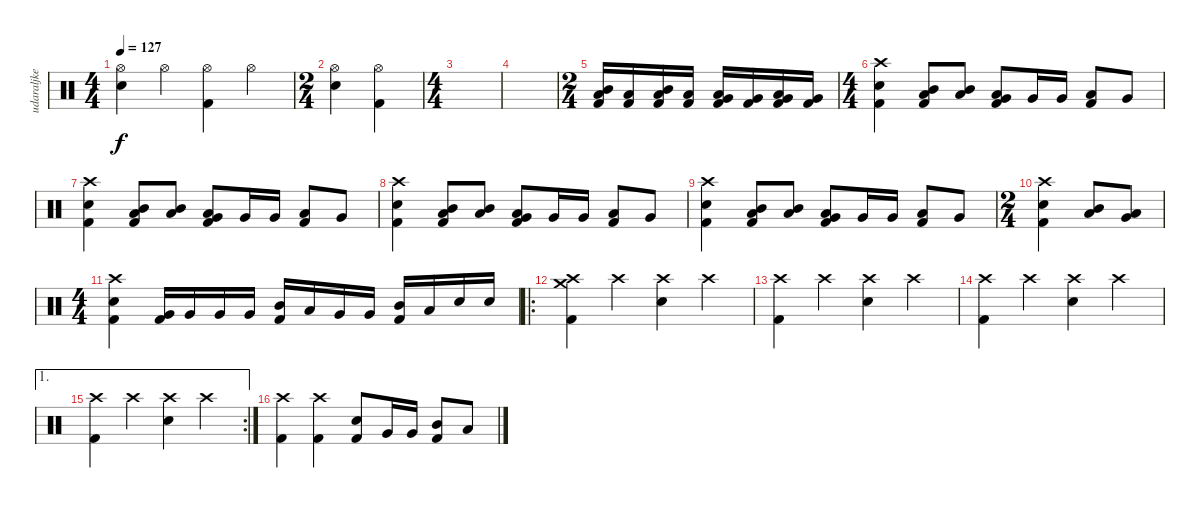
\track ("udaraljke" "udaraljke") {instrument percussion}
\staff {score}
\articulation defaults
\ts (4 4)
\tempo 127
\clef neutral
\ks c
("Hi-Hat (open)" "Electric Snare (hit)").4{dy f} "Hi-Hat (open)".4 ("Hi-Hat (open)" "Kick (hit) 2").4 "Hi-Hat (open)".4 |
\ts (2 4)
("Hi-Hat (open)" "Electric Snare (hit)").4 ("Hi-Hat (open)" "Kick (hit) 2").4 |
\ts (4 4)
|
|
\ts (2 4)
("Mid Tom (hit)" "Low Tom (hit)" "Kick (hit) 2").16 ("Low Tom (hit)" "Kick (hit) 2").16 ("Mid Tom (hit)" "Low Tom (hit)" "Kick (hit) 2").16 ("Low Tom (hit)" "Kick (hit) 2").16 ("Low Tom (hit)" "Very Low Tom (hit)" "Kick (hit) 2").16 ("Very Low Tom (hit)" "Kick (hit) 2").16 ("Low Tom (hit)" "Very Low Tom (hit)" "Kick (hit) 2").16 ("Very Low Tom (hit)" "Kick (hit) 2").16 |
\ts (4 4)
("Crash high (hit)" "Electric Snare (hit)" "Kick (hit) 2").4 ("Mid Tom (hit)" "Low Tom (hit)" "Kick (hit) 2").8 ("Mid Tom (hit)" "Low Tom (hit)").8 ("Low Tom (hit)" "Very Low Tom (hit)" "Kick (hit) 2").8 "Very Low Tom (hit)".16 "Very Low Tom (hit)".16 ("Low Tom (hit)" "Kick (hit) 2").8 "Very Low Tom (hit)".8 |
("Crash high (hit)" "Electric Snare (hit)" "Kick (hit) 2").4 ("Mid Tom (hit)" "Low Tom (hit)" "Kick (hit) 2").8 ("Mid Tom (hit)" "Low Tom (hit)").8 ("Low Tom (hit)" "Very Low Tom (hit)" "Kick (hit) 2").8 "Very Low Tom (hit)".16 "Very Low Tom (hit)".16 ("Low Tom (hit)" "Kick (hit) 2").8 "Very Low Tom (hit)".8 |
("Crash high (hit)" "Electric Snare (hit)" "Kick (hit) 2").4 ("Mid Tom (hit)" "Low Tom (hit)" "Kick (hit) 2").8 ("Mid Tom (hit)" "Low Tom (hit)").8 ("Low Tom (hit)" "Very Low Tom (hit)" "Kick (hit) 2").8 "Very Low Tom (hit)".16 "Very Low Tom (hit)".16 ("Low Tom (hit)" "Kick (hit) 2").8 "Very Low Tom (hit)".8 |
("Crash high (hit)" "Electric Snare (hit)" "Kick (hit) 2").4 ("Mid Tom (hit)" "Low Tom (hit)" "Kick (hit) 2").8 ("Mid Tom (hit)" "Low Tom (hit)").8 ("Low Tom (hit)" "Very Low Tom (hit)" "Kick (hit) 2").8 "Very Low Tom (hit)".16 "Very Low Tom (hit)".16 ("Low Tom (hit)" "Kick (hit) 2").8 "Very Low Tom (hit)".8 |
\ts (2 4)
("Crash high (hit)" "Electric Snare (hit)" "Kick (hit) 2").4 ("Mid Tom (hit)" "Low Tom (hit)").8 ("Low Tom (hit)" "Very Low Tom (hit)").8 |
\ts (4 4)
("Crash high (hit)" "Electric Snare (hit)" "Kick (hit) 2").4 ("Very Low Tom (hit)" "Kick (hit) 2").16 "Very Low Tom (hit)".16 "Very Low Tom (hit)".16 "Very Low Tom (hit)".16 ("Mid Tom (hit)" "Kick (hit) 2").16 "Low Tom (hit)".16 "Very Low Tom (hit)".16 "Very Low Tom (hit)".16 ("Mid Tom (hit)" "Kick (hit) 2").16 "Low Tom (hit)".16 "Electric Snare (hit)".16 "Electric Snare (hit)".16 |
\ro
("Crash high (hit)" "Crash medium (hit)" "Kick (hit) 2").4 "Crash high (hit)".4 ("Crash high (hit)" "Electric Snare (hit)").4 "Crash high (hit)".4 |
("Crash high (hit)" "Kick (hit) 2").4 "Crash high (hit)".4 ("Crash high (hit)" "Electric Snare (hit)").4 "Crash high (hit)".4 |
("Crash high (hit)" "Kick (hit) 2").4 "Crash high (hit)".4 ("Crash high (hit)" "Electric Snare (hit)").4 "Crash high (hit)".4 |
\ae 1
\rc 2
("Crash high (hit)" "Kick (hit) 2").4 "Crash high (hit)".4 ("Crash high (hit)" "Electric Snare (hit)").4 "Crash high (hit)".4 |
("Crash high (hit)" "Kick (hit) 2").4 ("Crash high (hit)" "Kick (hit) 2").4 ("Electric Snare (hit)" "Kick (hit) 2").8 "Very Low Tom (hit)".16 "Very Low Tom (hit)".16 ("Mid Tom (hit)" "Kick (hit) 2").8 "Low Tom (hit)".8
